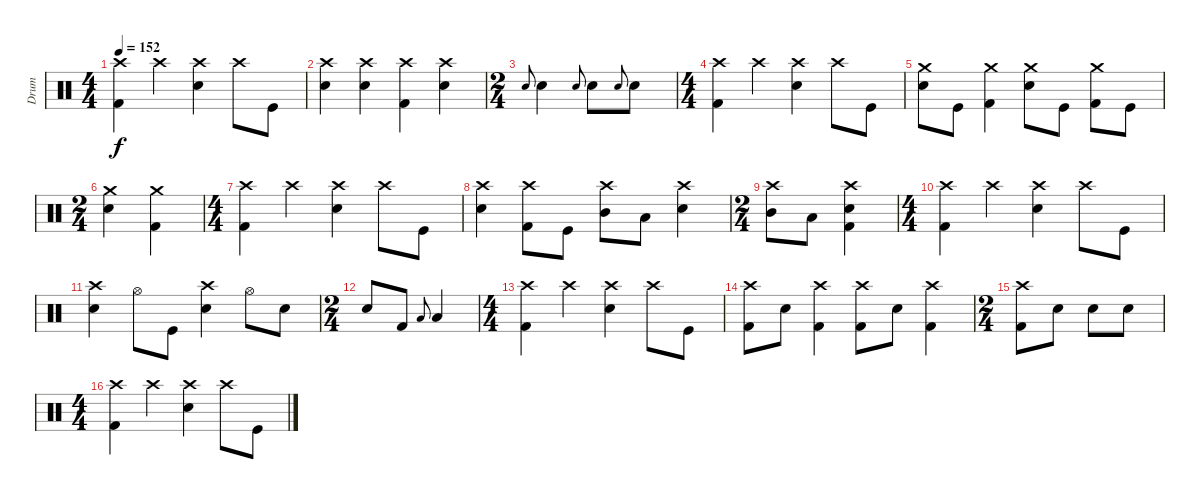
\track ("Drum" "Drum") {instrument percussion}
\staff {score}
\articulation defaults
\ts (4 4)
\tempo 152
\clef neutral
\ks c
("Crash high (hit)" "Kick (hit) 2").4{dy f} "Crash high (hit)".4 ("Crash high (hit)" "Snare (hit) 2").4 "Crash high (hit)".8 "Kick (hit)".8 |
("Crash high (hit)" "Snare (hit) 2").4 ("Crash high (hit)" "Snare (hit) 2").4 ("Crash high (hit)" "Kick (hit) 2").4 ("Crash high (hit)" "Snare (hit) 2").4 |
\ts (2 4)
"Snare (hit) 2".8{gr onbeat} "Snare (hit) 2".4 "Snare (hit) 2".8{gr onbeat} "Snare (hit) 2".8 "Snare (hit) 2".8{gr onbeat} "Snare (hit) 2".8 |
\ts (4 4)
("Crash high (hit)" "Kick (hit) 2").4 "Crash high (hit)".4 ("Crash high (hit)" "Snare (hit) 2").4 "Crash high (hit)".8 "Kick (hit)".8 |
("Crash medium (hit)" "Snare (hit) 2").8 "Kick (hit)".8 ("Crash medium (hit)" "Kick (hit) 2").4 ("Crash medium (hit)" "Snare (hit) 2").8 "Kick (hit)".8 ("Crash medium (hit)" "Kick (hit) 2").8 "Kick (hit)".8 |
\ts (2 4)
("Crash medium (hit)" "Snare (hit) 2").4 ("Crash medium (hit)" "Kick (hit) 2").4 |
\ts (4 4)
("Crash high (hit)" "Kick (hit) 2").4 "Crash high (hit)".4 ("Crash high (hit)" "Snare (hit) 2").4 "Crash high (hit)".8 "Kick (hit)".8 |
("Crash high (hit)" "Snare (hit) 2").4 ("Crash high (hit)" "Kick (hit) 2").8 "Kick (hit)".8 ("Crash high (hit)" "Mid Tom (hit)").8 "Low Tom (hit)".8 ("Crash high (hit)" "Snare (hit) 2").4 |
\ts (2 4)
("Crash high (hit)" "Mid Tom (hit)").8 "Low Tom (hit)".8 ("Crash high (hit)" "Snare (hit) 2" "Kick (hit) 2").4 |
\ts (4 4)
("Crash high (hit)" "Kick (hit) 2").4 "Crash high (hit)".4 ("Crash high (hit)" "Snare (hit) 2").4 "Crash high (hit)".8 "Kick (hit)".8 |
("Crash high (hit)" "Snare (hit) 2").4 "Hi-Hat (open)".8 "Kick (hit)".8 ("Crash high (hit)" "Snare (hit) 2").4 "Hi-Hat (open)".8 "Snare (hit) 2".8 |
\ts (2 4)
"Snare (hit) 2".8 "Kick (hit) 2".8 "Low Tom (hit)".8{gr onbeat} "Low Tom (hit)".4 |
\ts (4 4)
("Crash high (hit)" "Kick (hit) 2").4 "Crash high (hit)".4 ("Crash high (hit)" "Snare (hit) 2").4 "Crash high (hit)".8 "Kick (hit)".8 |
("Crash high (hit)" "Kick (hit) 2").8 "Snare (hit) 2".8 ("Crash high (hit)" "Kick (hit) 2").4 ("Crash high (hit)" "Kick (hit) 2").8 "Snare (hit) 2".8 ("Crash high (hit)" "Kick (hit) 2").4 |
\ts (2 4)
("Crash high (hit)" "Kick (hit) 2").8 "Snare (hit) 2".8 "Snare (hit) 2".8 "Snare (hit) 2".8 |
\ts (4 4)
("Crash high (hit)" "Kick (hit) 2").4 "Crash high (hit)".4 ("Crash high (hit)" "Snare (hit) 2").4 "Crash high (hit)".8 "Kick (hit)".8
